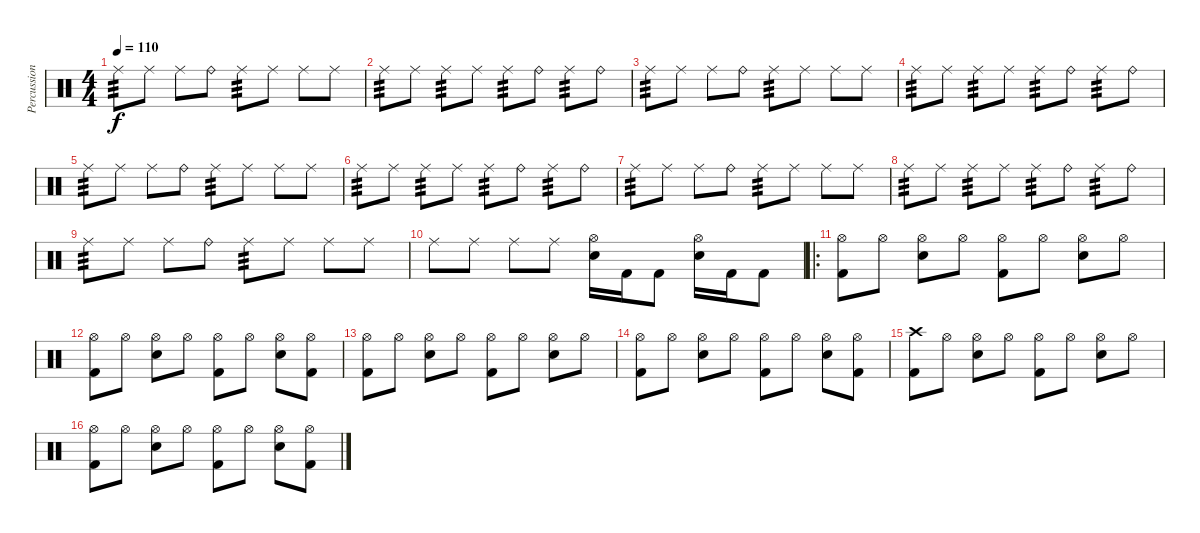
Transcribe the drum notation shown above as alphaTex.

\track ("Percussion" "Percussion") {instrument percussion}
\staff {score}
\articulation defaults
\ts (4 4)
\tempo 110
\clef neutral
\ks c "Ride (middle)".8{tp 3 dy f} "Ride (middle)".8 "Ride (middle)".8 "Ride (bell)".8 "Ride (middle)".8{tp 3} "Ride (middle)".8 "Ride (middle)".8 "Ride (middle)".8
|
"Ride (middle)".8{tp 3} "Ride (middle)".8 "Ride (middle)".8{tp 3} "Ride (middle)".8 "Ride (middle)".8{tp 3} "Ride (bell)".8 "Ride (middle)".8{tp 3} "Ride (bell)".8 |
"Ride (middle)".8{tp 3} "Ride (middle)".8 "Ride (middle)".8 "Ride (bell)".8 "Ride (middle)".8{tp 3} "Ride (middle)".8 "Ride (middle)".8 "Ride (middle)".8 |
"Ride (middle)".8{tp 3} "Ride (middle)".8 "Ride (middle)".8{tp 3} "Ride (middle)".8 "Ride (middle)".8{tp 3} "Ride (bell)".8 "Ride (middle)".8{tp 3} "Ride (bell)".8 |
"Ride (middle)".8{tp 3} "Ride (middle)".8 "Ride (middle)".8 "Ride (bell)".8 "Ride (middle)".8{tp 3} "Ride (middle)".8 "Ride (middle)".8 "Ride (middle)".8 |
"Ride (middle)".8{tp 3} "Ride (middle)".8 "Ride (middle)".8{tp 3} "Ride (middle)".8 "Ride (middle)".8{tp 3} "Ride (bell)".8 "Ride (middle)".8{tp 3} "Ride (bell)".8 |
"Ride (middle)".8{tp 3} "Ride (middle)".8 "Ride (middle)".8 "Ride (bell)".8 "Ride (middle)".8{tp 3} "Ride (middle)".8 "Ride (middle)".8 "Ride (middle)".8 |
"Ride (middle)".8{tp 3} "Ride (middle)".8 "Ride (middle)".8{tp 3} "Ride (middle)".8 "Ride (middle)".8{tp 3} "Ride (bell)".8 "Ride (middle)".8{tp 3} "Ride (bell)".8 |
"Ride (middle)".8{tp 3} "Ride (middle)".8 "Ride (middle)".8 "Ride (bell)".8 "Ride (middle)".8{tp 3} "Ride (middle)".8 "Ride (middle)".8 "Ride (middle)".8 |
"Ride (middle)".8 "Ride (middle)".8 "Ride (middle)".8 "Ride (middle)".8 ("Hi-Hat (open)" "Snare (hit) 2").16 "Kick (hit) 2".16 "Kick (hit) 2".8 ("Hi-Hat (open)" "Snare (hit) 2").16 "Kick (hit) 2".16 "Kick (hit) 2".8 |
\ro
("Hi-Hat (open)" "Kick (hit) 2").8 "Hi-Hat (open)".8 ("Hi-Hat (open)" "Snare (hit) 2").8 "Hi-Hat (open)".8 ("Hi-Hat (open)" "Kick (hit) 2").8 "Hi-Hat (open)".8 ("Hi-Hat (open)" "Snare (hit) 2").8 "Hi-Hat (open)".8 |
("Hi-Hat (open)" "Kick (hit) 2").8 "Hi-Hat (open)".8 ("Hi-Hat (open)" "Snare (hit) 2").8 "Hi-Hat (open)".8 ("Hi-Hat (open)" "Kick (hit) 2").8 "Hi-Hat (open)".8 ("Hi-Hat (open)" "Snare (hit) 2").8 ("Hi-Hat (open)" "Kick (hit) 2").8 |
("Hi-Hat (open)" "Kick (hit) 2").8 "Hi-Hat (open)".8 ("Hi-Hat (open)" "Snare (hit) 2").8 "Hi-Hat (open)".8 ("Hi-Hat (open)" "Kick (hit) 2").8 "Hi-Hat (open)".8 ("Hi-Hat (open)" "Snare (hit) 2").8 "Hi-Hat (open)".8 |
("Hi-Hat (open)" "Kick (hit) 2").8 "Hi-Hat (open)".8 ("Hi-Hat (open)" "Snare (hit) 2").8 "Hi-Hat (open)".8 ("Hi-Hat (open)" "Kick (hit) 2").8 "Hi-Hat (open)".8 ("Hi-Hat (open)" "Snare (hit) 2").8 ("Hi-Hat (open)" "Kick (hit) 2").8 |
("Crash high (hit)" "Kick (hit) 2").8 "Hi-Hat (open)".8 ("Hi-Hat (open)" "Snare (hit) 2").8 "Hi-Hat (open)".8 ("Hi-Hat (open)" "Kick (hit) 2").8 "Hi-Hat (open)".8 ("Hi-Hat (open)" "Snare (hit) 2").8 "Hi-Hat (open)".8 |
("Hi-Hat (open)" "Kick (hit) 2").8 "Hi-Hat (open)".8 ("Hi-Hat (open)" "Snare (hit) 2").8 "Hi-Hat (open)".8 ("Hi-Hat (open)" "Kick (hit) 2").8 "Hi-Hat (open)".8 ("Hi-Hat (open)" "Snare (hit) 2").8 ("Hi-Hat (open)" "Kick (hit) 2").8
